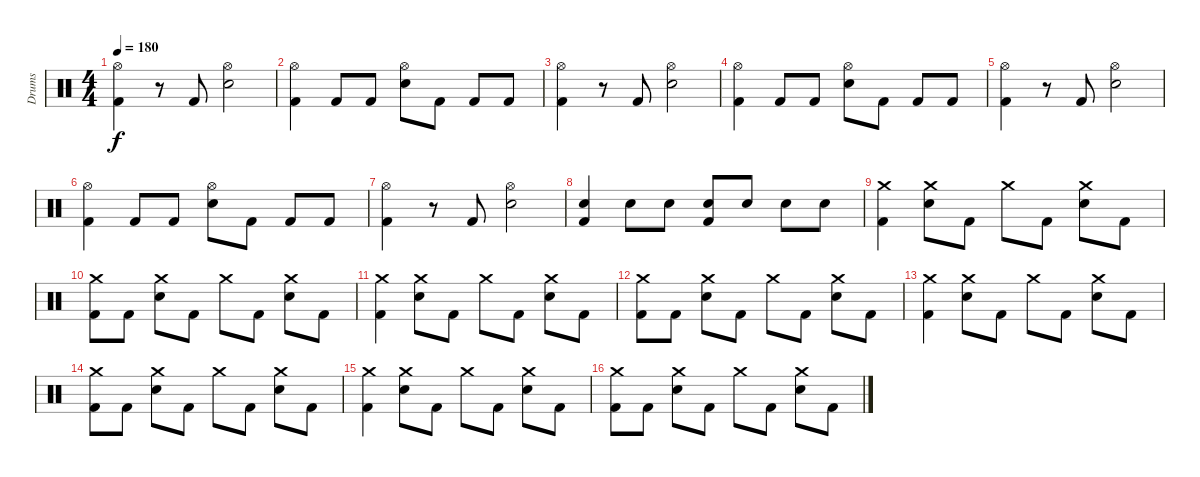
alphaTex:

\track ("Drums" "Drums") {instrument percussion}
\staff {score}
\articulation defaults
\ts (4 4)
\tempo 180
\clef neutral
\ks c
("Hi-Hat (open)" "Kick (hit) 2").4{dy f} r.8 "Kick (hit) 2".8 ("Hi-Hat (open)" "Snare (hit) 2").2 |
("Hi-Hat (open)" "Kick (hit) 2").4 "Kick (hit) 2".8 "Kick (hit) 2".8 ("Hi-Hat (open)" "Snare (hit) 2").8 "Kick (hit) 2".8 "Kick (hit) 2".8 "Kick (hit) 2".8 |
("Hi-Hat (open)" "Kick (hit) 2").4 r.8 "Kick (hit) 2".8 ("Hi-Hat (open)" "Snare (hit) 2").2 |
("Hi-Hat (open)" "Kick (hit) 2").4 "Kick (hit) 2".8 "Kick (hit) 2".8 ("Hi-Hat (open)" "Snare (hit) 2").8 "Kick (hit) 2".8 "Kick (hit) 2".8 "Kick (hit) 2".8 |
("Hi-Hat (open)" "Kick (hit) 2").4 r.8 "Kick (hit) 2".8 ("Hi-Hat (open)" "Snare (hit) 2").2 |
("Hi-Hat (open)" "Kick (hit) 2").4 "Kick (hit) 2".8 "Kick (hit) 2".8 ("Hi-Hat (open)" "Snare (hit) 2").8 "Kick (hit) 2".8 "Kick (hit) 2".8 "Kick (hit) 2".8 |
("Hi-Hat (open)" "Kick (hit) 2").4 r.8 "Kick (hit) 2".8 ("Hi-Hat (open)" "Snare (hit) 2").2 |
("Snare (hit) 2" "Kick (hit) 2").4 "Snare (hit) 2".8 "Snare (hit) 2".8 ("Snare (hit) 2" "Kick (hit) 2").8 "Snare (hit) 2".8 "Snare (hit) 2".8 "Snare (hit) 2".8 |
("Crash medium (hit)" "Kick (hit) 2").4 ("Crash medium (hit)" "Snare (hit) 2").8 "Kick (hit) 2".8 "Crash medium (hit)".8 "Kick (hit) 2".8 ("Crash medium (hit)" "Snare (hit) 2").8 "Kick (hit) 2".8 |
("Crash medium (hit)" "Kick (hit) 2").8 "Kick (hit) 2".8 ("Crash medium (hit)" "Snare (hit) 2").8 "Kick (hit) 2".8 "Crash medium (hit)".8 "Kick (hit) 2".8 ("Crash medium (hit)" "Snare (hit) 2").8 "Kick (hit) 2".8 |
("Crash medium (hit)" "Kick (hit) 2").4 ("Crash medium (hit)" "Snare (hit) 2").8 "Kick (hit) 2".8 "Crash medium (hit)".8 "Kick (hit) 2".8 ("Crash medium (hit)" "Snare (hit) 2").8 "Kick (hit) 2".8 |
("Crash medium (hit)" "Kick (hit) 2").8 "Kick (hit) 2".8 ("Crash medium (hit)" "Snare (hit) 2").8 "Kick (hit) 2".8 "Crash medium (hit)".8 "Kick (hit) 2".8 ("Crash medium (hit)" "Snare (hit) 2").8 "Kick (hit) 2".8 |
("Crash medium (hit)" "Kick (hit) 2").4 ("Crash medium (hit)" "Snare (hit) 2").8 "Kick (hit) 2".8 "Crash medium (hit)".8 "Kick (hit) 2".8 ("Crash medium (hit)" "Snare (hit) 2").8 "Kick (hit) 2".8 |
("Crash medium (hit)" "Kick (hit) 2").8 "Kick (hit) 2".8 ("Crash medium (hit)" "Snare (hit) 2").8 "Kick (hit) 2".8 "Crash medium (hit)".8 "Kick (hit) 2".8 ("Crash medium (hit)" "Snare (hit) 2").8 "Kick (hit) 2".8 |
("Crash medium (hit)" "Kick (hit) 2").4 ("Crash medium (hit)" "Snare (hit) 2").8 "Kick (hit) 2".8 "Crash medium (hit)".8 "Kick (hit) 2".8 ("Crash medium (hit)" "Snare (hit) 2").8 "Kick (hit) 2".8 |
("Crash medium (hit)" "Kick (hit) 2").8 "Kick (hit) 2".8 ("Crash medium (hit)" "Snare (hit) 2").8 "Kick (hit) 2".8 "Crash medium (hit)".8 "Kick (hit) 2".8 ("Crash medium (hit)" "Snare (hit) 2").8 "Kick (hit) 2".8
